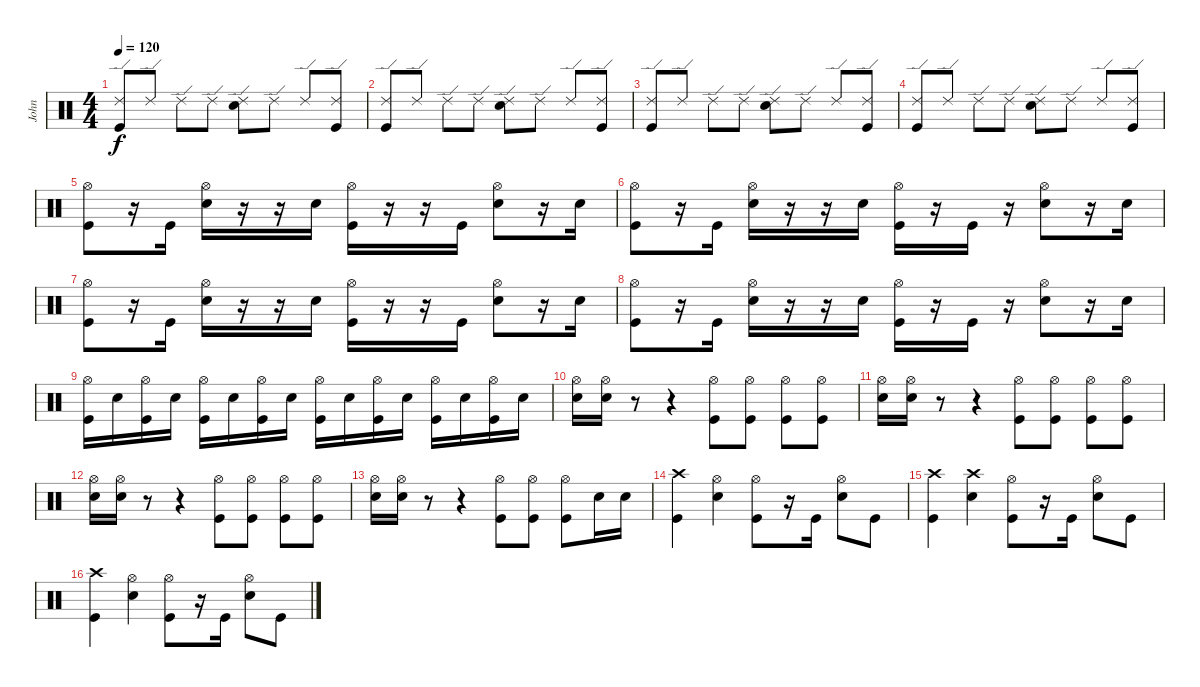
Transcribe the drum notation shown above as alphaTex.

\track ("John" "John") {instrument percussion}
\staff {score}
\articulation defaults
\ts (4 4)
\tempo 120
\clef neutral
\ks c
("Ride (edge) 2" "Kick (hit)").8{dy f} "Ride (edge) 2".8 "Ride (edge) 2".8 "Ride (edge) 2".8 ("Ride (edge) 2" "Snare (hit) 2").8 "Ride (edge) 2".8 "Ride (edge) 2".8 ("Ride (edge) 2" "Kick (hit)").8 |
("Ride (edge) 2" "Kick (hit)").8 "Ride (edge) 2".8 "Ride (edge) 2".8 "Ride (edge) 2".8 ("Ride (edge) 2" "Snare (hit) 2").8 "Ride (edge) 2".8 "Ride (edge) 2".8 ("Ride (edge) 2" "Kick (hit)").8 |
("Ride (edge) 2" "Kick (hit)").8 "Ride (edge) 2".8 "Ride (edge) 2".8 "Ride (edge) 2".8 ("Ride (edge) 2" "Snare (hit) 2").8 "Ride (edge) 2".8 "Ride (edge) 2".8 ("Ride (edge) 2" "Kick (hit)").8 |
("Ride (edge) 2" "Kick (hit)").8 "Ride (edge) 2".8 "Ride (edge) 2".8 "Ride (edge) 2".8 ("Ride (edge) 2" "Snare (hit) 2").8 "Ride (edge) 2".8 "Ride (edge) 2".8 ("Ride (edge) 2" "Kick (hit)").8 |
("Hi-Hat (open)" "Kick (hit)").8 r.16 "Kick (hit)".16 ("Hi-Hat (open)" "Snare (hit) 2").16 r.16 r.16 "Snare (hit) 2".16 ("Hi-Hat (open)" "Kick (hit)").16 r.16 r.16 "Kick (hit)".16 ("Hi-Hat (open)" "Snare (hit) 2").8 r.16 "Snare (hit) 2".16 |
("Hi-Hat (open)" "Kick (hit)").8 r.16 "Kick (hit)".16 ("Hi-Hat (open)" "Snare (hit) 2").16 r.16 r.16 "Snare (hit) 2".16 ("Hi-Hat (open)" "Kick (hit)").16 r.16 "Kick (hit)".16 r.16 ("Hi-Hat (open)" "Snare (hit) 2").8 r.16 "Snare (hit) 2".16 |
("Hi-Hat (open)" "Kick (hit)").8 r.16 "Kick (hit)".16 ("Hi-Hat (open)" "Snare (hit) 2").16 r.16 r.16 "Snare (hit) 2".16 ("Hi-Hat (open)" "Kick (hit)").16 r.16 r.16 "Kick (hit)".16 ("Hi-Hat (open)" "Snare (hit) 2").8 r.16 "Snare (hit) 2".16 |
("Hi-Hat (open)" "Kick (hit)").8 r.16 "Kick (hit)".16 ("Hi-Hat (open)" "Snare (hit) 2").16 r.16 r.16 "Snare (hit) 2".16 ("Hi-Hat (open)" "Kick (hit)").16 r.16 "Kick (hit)".16 r.16 ("Hi-Hat (open)" "Snare (hit) 2").8 r.16 "Snare (hit) 2".16 |
("Hi-Hat (open)" "Kick (hit)").16 "Snare (hit) 2".16 ("Hi-Hat (open)" "Kick (hit)").16 "Snare (hit) 2".16 ("Hi-Hat (open)" "Kick (hit)").16 "Snare (hit) 2".16 ("Hi-Hat (open)" "Kick (hit)").16 "Snare (hit) 2".16 ("Hi-Hat (open)" "Kick (hit)").16 "Snare (hit) 2".16 ("Hi-Hat (open)" "Kick (hit)").16 "Snare (hit) 2".16 ("Hi-Hat (open)" "Kick (hit)").16 "Snare (hit) 2".16 ("Hi-Hat (open)" "Kick (hit)").16 "Snare (hit) 2".16 |
("Hi-Hat (open)" "Snare (hit) 2").16 ("Hi-Hat (open)" "Snare (hit) 2").16 r.8 r.4 ("Hi-Hat (open)" "Kick (hit)").8 ("Hi-Hat (open)" "Kick (hit)").8 ("Hi-Hat (open)" "Kick (hit)").8 ("Hi-Hat (open)" "Kick (hit)").8 |
("Hi-Hat (open)" "Snare (hit) 2").16 ("Hi-Hat (open)" "Snare (hit) 2").16 r.8 r.4 ("Hi-Hat (open)" "Kick (hit)").8 ("Hi-Hat (open)" "Kick (hit)").8 ("Hi-Hat (open)" "Kick (hit)").8 ("Hi-Hat (open)" "Kick (hit)").8 |
("Hi-Hat (open)" "Snare (hit) 2").16 ("Hi-Hat (open)" "Snare (hit) 2").16 r.8 r.4 ("Hi-Hat (open)" "Kick (hit)").8 ("Hi-Hat (open)" "Kick (hit)").8 ("Hi-Hat (open)" "Kick (hit)").8 ("Hi-Hat (open)" "Kick (hit)").8 |
("Hi-Hat (open)" "Snare (hit) 2").16 ("Hi-Hat (open)" "Snare (hit) 2").16 r.8 r.4 ("Hi-Hat (open)" "Kick (hit)").8 ("Hi-Hat (open)" "Kick (hit)").8 ("Hi-Hat (open)" "Kick (hit)").8 "Snare (hit) 2".16 "Snare (hit) 2".16 |
("Crash high (hit)" "Kick (hit)").4 ("Hi-Hat (open)" "Snare (hit) 2").4 ("Hi-Hat (open)" "Kick (hit)").8 r.16 "Kick (hit)".16 ("Hi-Hat (open)" "Snare (hit) 2").8 "Kick (hit)".8 |
("Crash high (hit)" "Kick (hit)").4 ("Crash high (hit)" "Snare (hit) 2").4 ("Hi-Hat (open)" "Kick (hit)").8 r.16 "Kick (hit)".16 ("Hi-Hat (open)" "Snare (hit) 2").8 "Kick (hit)".8 |
("Crash high (hit)" "Kick (hit)").4 ("Hi-Hat (open)" "Snare (hit) 2").4 ("Hi-Hat (open)" "Kick (hit)").8 r.16 "Kick (hit)".16 ("Hi-Hat (open)" "Snare (hit) 2").8 "Kick (hit)".8
